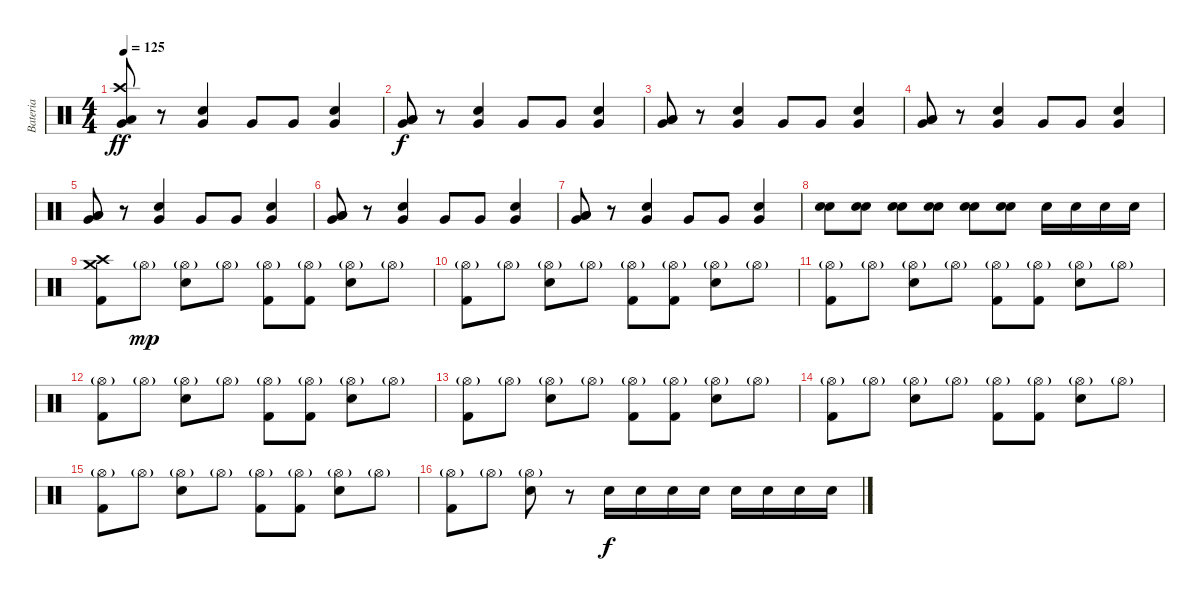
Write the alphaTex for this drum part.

\track ("Bateria" "Bateria") {instrument percussion}
\staff {score}
\articulation defaults
\ts (4 4)
\tempo 125
\clef neutral
\ks c
("Low Tom (hit)" "Crash high (hit)" "Very Low Tom (hit)").8{dy ff} r.8 ("Snare (hit) 2" "Very Low Tom (hit)").4 "Very Low Tom (hit)".8 "Very Low Tom (hit)".8 ("Snare (hit) 2" "Very Low Tom (hit)").4 |
("Low Tom (hit)" "Low Floor Tom (hit)" "Very Low Tom (hit)").8{dy f} r.8 ("Snare (hit) 2" "Very Low Tom (hit)").4 "Very Low Tom (hit)".8 "Very Low Tom (hit)".8 ("Snare (hit) 2" "Very Low Tom (hit)").4 |
("Low Tom (hit)" "Low Floor Tom (hit)" "Very Low Tom (hit)").8 r.8 ("Snare (hit) 2" "Very Low Tom (hit)").4 "Very Low Tom (hit)".8 "Very Low Tom (hit)".8 ("Snare (hit) 2" "Very Low Tom (hit)").4 |
("Low Tom (hit)" "Low Floor Tom (hit)" "Very Low Tom (hit)").8 r.8 ("Snare (hit) 2" "Very Low Tom (hit)").4 "Very Low Tom (hit)".8 "Very Low Tom (hit)".8 ("Snare (hit) 2" "Very Low Tom (hit)").4 |
("Low Tom (hit)" "Low Floor Tom (hit)" "Very Low Tom (hit)").8 r.8 ("Snare (hit) 2" "Very Low Tom (hit)").4 "Very Low Tom (hit)".8 "Very Low Tom (hit)".8 ("Snare (hit) 2" "Very Low Tom (hit)").4 |
("Low Tom (hit)" "Low Floor Tom (hit)" "Very Low Tom (hit)").8 r.8 ("Snare (hit) 2" "Very Low Tom (hit)").4 "Very Low Tom (hit)".8 "Very Low Tom (hit)".8 ("Snare (hit) 2" "Very Low Tom (hit)").4 |
("Low Tom (hit)" "Low Floor Tom (hit)" "Very Low Tom (hit)").8 r.8 ("Snare (hit) 2" "Very Low Tom (hit)").4 "Very Low Tom (hit)".8 "Very Low Tom (hit)".8 ("Snare (hit) 2" "Very Low Tom (hit)").4 |
("Snare (hit) 2" "Snare (hit) 2").8 ("Snare (hit) 2" "Snare (hit) 2").8 ("Snare (hit) 2" "Snare (hit) 2").8 ("Snare (hit) 2" "Snare (hit) 2").8 ("Snare (hit) 2" "Snare (hit) 2").8 ("Snare (hit) 2" "Snare (hit) 2").8 "Snare (hit) 2".16 "Snare (hit) 2".16 "Snare (hit) 2".16 "Snare (hit) 2".16 |
("Crash medium (hit)" "Kick (hit) 2" "Crash high (hit)").8 "Hi-Hat (open)"{g}.8{dy mp} ("Hi-Hat (open)"{g} "Snare (hit) 2").8 "Hi-Hat (open)"{g}.8 ("Hi-Hat (open)"{g} "Kick (hit) 2").8 ("Hi-Hat (open)"{g} "Kick (hit) 2").8 ("Hi-Hat (open)"{g} "Snare (hit) 2").8 "Hi-Hat (open)"{g}.8 |
("Hi-Hat (open)"{g} "Kick (hit) 2").8 "Hi-Hat (open)"{g}.8 ("Hi-Hat (open)"{g} "Snare (hit) 2").8 "Hi-Hat (open)"{g}.8 ("Hi-Hat (open)"{g} "Kick (hit) 2").8 ("Hi-Hat (open)"{g} "Kick (hit) 2").8 ("Hi-Hat (open)"{g} "Snare (hit) 2").8 "Hi-Hat (open)"{g}.8 |
("Hi-Hat (open)"{g} "Kick (hit) 2").8 "Hi-Hat (open)"{g}.8 ("Hi-Hat (open)"{g} "Snare (hit) 2").8 "Hi-Hat (open)"{g}.8 ("Hi-Hat (open)"{g} "Kick (hit) 2").8 ("Hi-Hat (open)"{g} "Kick (hit) 2").8 ("Hi-Hat (open)"{g} "Snare (hit) 2").8 "Hi-Hat (open)"{g}.8 |
("Hi-Hat (open)"{g} "Kick (hit) 2").8 "Hi-Hat (open)"{g}.8 ("Hi-Hat (open)"{g} "Snare (hit) 2").8 "Hi-Hat (open)"{g}.8 ("Hi-Hat (open)"{g} "Kick (hit) 2").8 ("Hi-Hat (open)"{g} "Kick (hit) 2").8 ("Hi-Hat (open)"{g} "Snare (hit) 2").8 "Hi-Hat (open)"{g}.8 |
("Hi-Hat (open)"{g} "Kick (hit) 2").8 "Hi-Hat (open)"{g}.8 ("Hi-Hat (open)"{g} "Snare (hit) 2").8 "Hi-Hat (open)"{g}.8 ("Hi-Hat (open)"{g} "Kick (hit) 2").8 ("Hi-Hat (open)"{g} "Kick (hit) 2").8 ("Hi-Hat (open)"{g} "Snare (hit) 2").8 "Hi-Hat (open)"{g}.8 |
("Hi-Hat (open)"{g} "Kick (hit) 2").8 "Hi-Hat (open)"{g}.8 ("Hi-Hat (open)"{g} "Snare (hit) 2").8 "Hi-Hat (open)"{g}.8 ("Hi-Hat (open)"{g} "Kick (hit) 2").8 ("Hi-Hat (open)"{g} "Kick (hit) 2").8 ("Hi-Hat (open)"{g} "Snare (hit) 2").8 "Hi-Hat (open)"{g}.8 |
("Hi-Hat (open)"{g} "Kick (hit) 2").8 "Hi-Hat (open)"{g}.8 ("Hi-Hat (open)"{g} "Snare (hit) 2").8 "Hi-Hat (open)"{g}.8 ("Hi-Hat (open)"{g} "Kick (hit) 2").8 ("Hi-Hat (open)"{g} "Kick (hit) 2").8 ("Hi-Hat (open)"{g} "Snare (hit) 2").8 "Hi-Hat (open)"{g}.8 |
("Hi-Hat (open)"{g} "Kick (hit) 2").8 "Hi-Hat (open)"{g}.8 ("Hi-Hat (open)"{g} "Snare (hit) 2").8 r.8 "Snare (hit) 2".16{dy f} "Snare (hit) 2".16 "Snare (hit) 2".16 "Snare (hit) 2".16 "Snare (hit) 2".16 "Snare (hit) 2".16 "Snare (hit) 2".16 "Snare (hit) 2".16
